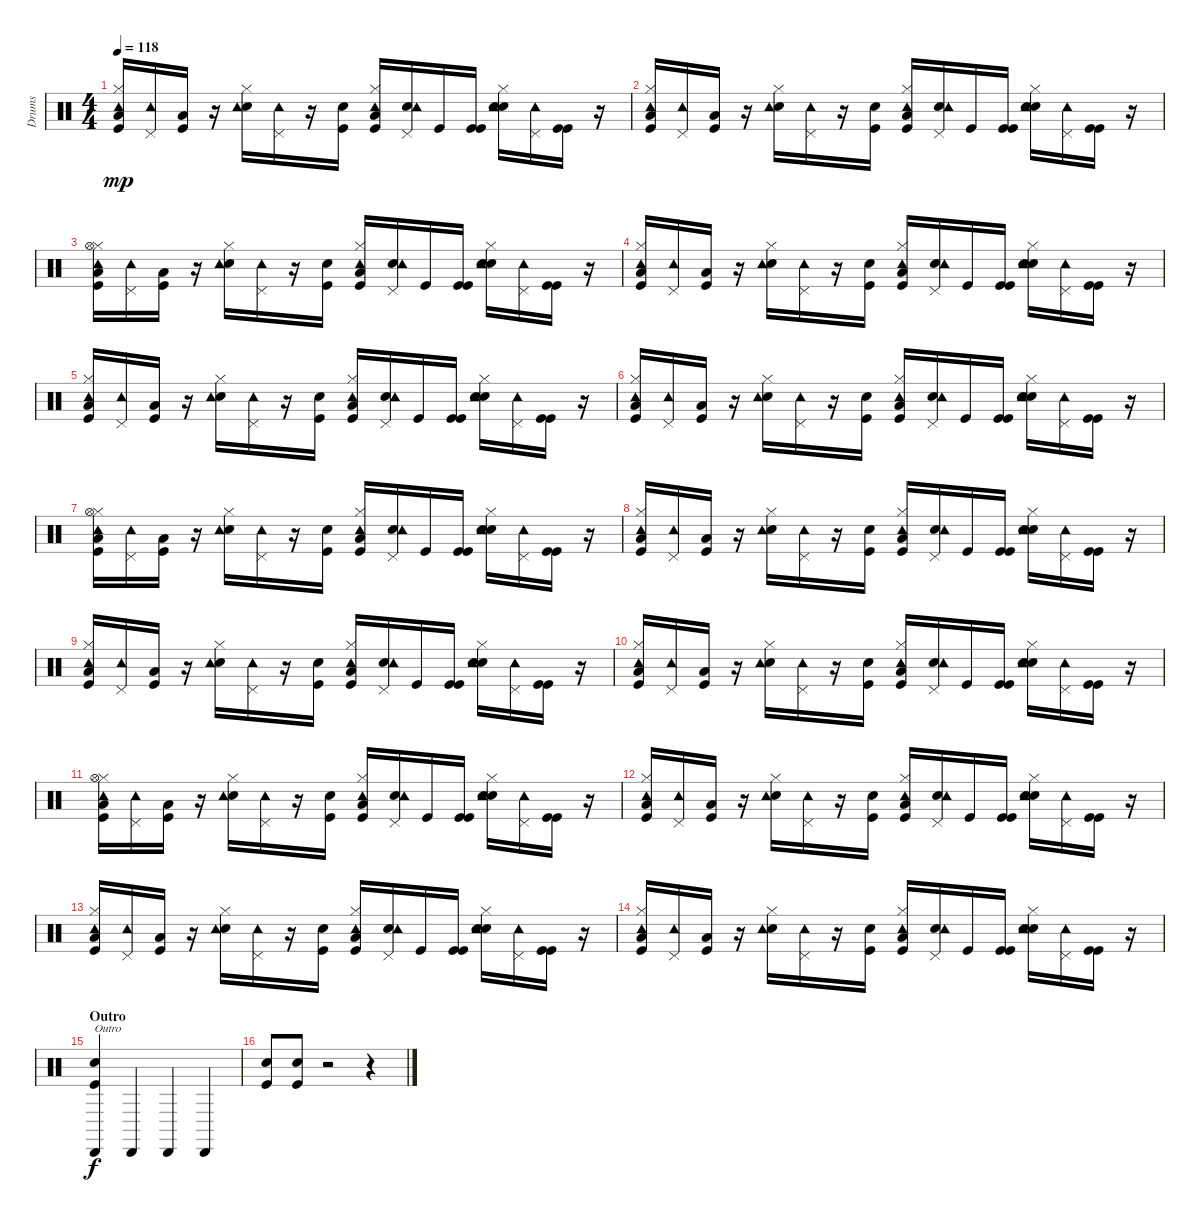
\track ("Drums" "Drums") {instrument percussion}
\staff {score}
\articulation defaults
\ts (4 4)
\tempo 118
\clef neutral
\ks c
("Low Floor Tom (hit)" "Hi-Hat (closed)" "Kick (hit)" "Tambourine (hit)").16{dy mp} ("Pedal Hi-Hat (hit)" "Tambourine (hit)").16 ("Low Floor Tom (hit)" "Kick (hit)").16 r.16 ("Electric Snare (hit)" "Hi-Hat (closed)" "Tambourine (hit)").16 ("Pedal Hi-Hat (hit)" "Tambourine (hit)").16 r.16 ("Kick (hit)" "Electric Snare (hit)").16 ("Low Floor Tom (hit)" "Hi-Hat (closed)" "Kick (hit)" "Tambourine (hit)").16 ("Pedal Hi-Hat (hit)" "Electric Snare (hit)" "Tambourine (hit)").16 "Kick (hit)".16 ("Kick (hit)" "Kick (hit)").16 ("Electric Snare (hit)" "Hi-Hat (closed)" "Electric Snare (hit)" "Tambourine (hit)").16 ("Pedal Hi-Hat (hit)" "Tambourine (hit)").16 ("Kick (hit)" "Kick (hit)").16 r.16 |
("Low Floor Tom (hit)" "Hi-Hat (closed)" "Kick (hit)" "Tambourine (hit)").16 ("Pedal Hi-Hat (hit)" "Tambourine (hit)").16 ("Low Floor Tom (hit)" "Kick (hit)").16 r.16 ("Electric Snare (hit)" "Hi-Hat (closed)" "Tambourine (hit)").16 ("Pedal Hi-Hat (hit)" "Tambourine (hit)").16 r.16 ("Kick (hit)" "Electric Snare (hit)").16 ("Low Floor Tom (hit)" "Hi-Hat (closed)" "Kick (hit)" "Tambourine (hit)").16 ("Pedal Hi-Hat (hit)" "Electric Snare (hit)" "Tambourine (hit)").16 "Kick (hit)".16 ("Kick (hit)" "Kick (hit)").16 ("Electric Snare (hit)" "Hi-Hat (closed)" "Electric Snare (hit)" "Tambourine (hit)").16 ("Pedal Hi-Hat (hit)" "Tambourine (hit)").16 ("Kick (hit)" "Kick (hit)").16 r.16 |
("Low Floor Tom (hit)" "Hi-Hat (closed)" "Kick (hit)" "Tambourine (hit)" "Hi-Hat (open)").16 ("Pedal Hi-Hat (hit)" "Tambourine (hit)").16 ("Low Floor Tom (hit)" "Kick (hit)").16 r.16 ("Electric Snare (hit)" "Hi-Hat (closed)" "Tambourine (hit)").16 ("Pedal Hi-Hat (hit)" "Tambourine (hit)").16 r.16 ("Kick (hit)" "Electric Snare (hit)").16 ("Low Floor Tom (hit)" "Hi-Hat (closed)" "Kick (hit)" "Tambourine (hit)").16 ("Pedal Hi-Hat (hit)" "Electric Snare (hit)" "Tambourine (hit)").16 "Kick (hit)".16 ("Kick (hit)" "Kick (hit)").16 ("Electric Snare (hit)" "Hi-Hat (closed)" "Electric Snare (hit)" "Tambourine (hit)").16 ("Pedal Hi-Hat (hit)" "Tambourine (hit)").16 ("Kick (hit)" "Kick (hit)").16 r.16 |
("Low Floor Tom (hit)" "Hi-Hat (closed)" "Kick (hit)" "Tambourine (hit)").16 ("Pedal Hi-Hat (hit)" "Tambourine (hit)").16 ("Low Floor Tom (hit)" "Kick (hit)").16 r.16 ("Electric Snare (hit)" "Hi-Hat (closed)" "Tambourine (hit)").16 ("Pedal Hi-Hat (hit)" "Tambourine (hit)").16 r.16 ("Kick (hit)" "Electric Snare (hit)").16 ("Low Floor Tom (hit)" "Hi-Hat (closed)" "Kick (hit)" "Tambourine (hit)").16 ("Pedal Hi-Hat (hit)" "Electric Snare (hit)" "Tambourine (hit)").16 "Kick (hit)".16 ("Kick (hit)" "Kick (hit)").16 ("Electric Snare (hit)" "Hi-Hat (closed)" "Electric Snare (hit)" "Tambourine (hit)").16 ("Pedal Hi-Hat (hit)" "Tambourine (hit)").16 ("Kick (hit)" "Kick (hit)").16 r.16 |
("Low Floor Tom (hit)" "Hi-Hat (closed)" "Kick (hit)" "Tambourine (hit)").16 ("Pedal Hi-Hat (hit)" "Tambourine (hit)").16 ("Low Floor Tom (hit)" "Kick (hit)").16 r.16 ("Electric Snare (hit)" "Hi-Hat (closed)" "Tambourine (hit)").16 ("Pedal Hi-Hat (hit)" "Tambourine (hit)").16 r.16 ("Kick (hit)" "Electric Snare (hit)").16 ("Low Floor Tom (hit)" "Hi-Hat (closed)" "Kick (hit)" "Tambourine (hit)").16 ("Pedal Hi-Hat (hit)" "Electric Snare (hit)" "Tambourine (hit)").16 "Kick (hit)".16 ("Kick (hit)" "Kick (hit)").16 ("Electric Snare (hit)" "Hi-Hat (closed)" "Electric Snare (hit)" "Tambourine (hit)").16 ("Pedal Hi-Hat (hit)" "Tambourine (hit)").16 ("Kick (hit)" "Kick (hit)").16 r.16 |
("Low Floor Tom (hit)" "Hi-Hat (closed)" "Kick (hit)" "Tambourine (hit)").16 ("Pedal Hi-Hat (hit)" "Tambourine (hit)").16 ("Low Floor Tom (hit)" "Kick (hit)").16 r.16 ("Electric Snare (hit)" "Hi-Hat (closed)" "Tambourine (hit)").16 ("Pedal Hi-Hat (hit)" "Tambourine (hit)").16 r.16 ("Kick (hit)" "Electric Snare (hit)").16 ("Low Floor Tom (hit)" "Hi-Hat (closed)" "Kick (hit)" "Tambourine (hit)").16 ("Pedal Hi-Hat (hit)" "Electric Snare (hit)" "Tambourine (hit)").16 "Kick (hit)".16 ("Kick (hit)" "Kick (hit)").16 ("Electric Snare (hit)" "Hi-Hat (closed)" "Electric Snare (hit)" "Tambourine (hit)").16 ("Pedal Hi-Hat (hit)" "Tambourine (hit)").16 ("Kick (hit)" "Kick (hit)").16 r.16 |
("Low Floor Tom (hit)" "Hi-Hat (closed)" "Kick (hit)" "Tambourine (hit)" "Hi-Hat (open)").16 ("Pedal Hi-Hat (hit)" "Tambourine (hit)").16 ("Low Floor Tom (hit)" "Kick (hit)").16 r.16 ("Electric Snare (hit)" "Hi-Hat (closed)" "Tambourine (hit)").16 ("Pedal Hi-Hat (hit)" "Tambourine (hit)").16 r.16 ("Kick (hit)" "Electric Snare (hit)").16 ("Low Floor Tom (hit)" "Hi-Hat (closed)" "Kick (hit)" "Tambourine (hit)").16 ("Pedal Hi-Hat (hit)" "Electric Snare (hit)" "Tambourine (hit)").16 "Kick (hit)".16 ("Kick (hit)" "Kick (hit)").16 ("Electric Snare (hit)" "Hi-Hat (closed)" "Electric Snare (hit)" "Tambourine (hit)").16 ("Pedal Hi-Hat (hit)" "Tambourine (hit)").16 ("Kick (hit)" "Kick (hit)").16 r.16 |
("Low Floor Tom (hit)" "Hi-Hat (closed)" "Kick (hit)" "Tambourine (hit)").16 ("Pedal Hi-Hat (hit)" "Tambourine (hit)").16 ("Low Floor Tom (hit)" "Kick (hit)").16 r.16 ("Electric Snare (hit)" "Hi-Hat (closed)" "Tambourine (hit)").16 ("Pedal Hi-Hat (hit)" "Tambourine (hit)").16 r.16 ("Kick (hit)" "Electric Snare (hit)").16 ("Low Floor Tom (hit)" "Hi-Hat (closed)" "Kick (hit)" "Tambourine (hit)").16 ("Pedal Hi-Hat (hit)" "Electric Snare (hit)" "Tambourine (hit)").16 "Kick (hit)".16 ("Kick (hit)" "Kick (hit)").16 ("Electric Snare (hit)" "Hi-Hat (closed)" "Electric Snare (hit)" "Tambourine (hit)").16 ("Pedal Hi-Hat (hit)" "Tambourine (hit)").16 ("Kick (hit)" "Kick (hit)").16 r.16 |
("Low Floor Tom (hit)" "Hi-Hat (closed)" "Kick (hit)" "Tambourine (hit)").16 ("Pedal Hi-Hat (hit)" "Tambourine (hit)").16 ("Low Floor Tom (hit)" "Kick (hit)").16 r.16 ("Electric Snare (hit)" "Hi-Hat (closed)" "Tambourine (hit)").16 ("Pedal Hi-Hat (hit)" "Tambourine (hit)").16 r.16 ("Kick (hit)" "Electric Snare (hit)").16 ("Low Floor Tom (hit)" "Hi-Hat (closed)" "Kick (hit)" "Tambourine (hit)").16 ("Pedal Hi-Hat (hit)" "Electric Snare (hit)" "Tambourine (hit)").16 "Kick (hit)".16 ("Kick (hit)" "Kick (hit)").16 ("Electric Snare (hit)" "Hi-Hat (closed)" "Electric Snare (hit)" "Tambourine (hit)").16 ("Pedal Hi-Hat (hit)" "Tambourine (hit)").16 ("Kick (hit)" "Kick (hit)").16 r.16 |
("Low Floor Tom (hit)" "Hi-Hat (closed)" "Kick (hit)" "Tambourine (hit)").16 ("Pedal Hi-Hat (hit)" "Tambourine (hit)").16 ("Low Floor Tom (hit)" "Kick (hit)").16 r.16 ("Electric Snare (hit)" "Hi-Hat (closed)" "Tambourine (hit)").16 ("Pedal Hi-Hat (hit)" "Tambourine (hit)").16 r.16 ("Kick (hit)" "Electric Snare (hit)").16 ("Low Floor Tom (hit)" "Hi-Hat (closed)" "Kick (hit)" "Tambourine (hit)").16 ("Pedal Hi-Hat (hit)" "Electric Snare (hit)" "Tambourine (hit)").16 "Kick (hit)".16 ("Kick (hit)" "Kick (hit)").16 ("Electric Snare (hit)" "Hi-Hat (closed)" "Electric Snare (hit)" "Tambourine (hit)").16 ("Pedal Hi-Hat (hit)" "Tambourine (hit)").16 ("Kick (hit)" "Kick (hit)").16 r.16 |
("Low Floor Tom (hit)" "Hi-Hat (closed)" "Kick (hit)" "Tambourine (hit)" "Hi-Hat (open)").16 ("Pedal Hi-Hat (hit)" "Tambourine (hit)").16 ("Low Floor Tom (hit)" "Kick (hit)").16 r.16 ("Electric Snare (hit)" "Hi-Hat (closed)" "Tambourine (hit)").16 ("Pedal Hi-Hat (hit)" "Tambourine (hit)").16 r.16 ("Kick (hit)" "Electric Snare (hit)").16 ("Low Floor Tom (hit)" "Hi-Hat (closed)" "Kick (hit)" "Tambourine (hit)").16 ("Pedal Hi-Hat (hit)" "Electric Snare (hit)" "Tambourine (hit)").16 "Kick (hit)".16 ("Kick (hit)" "Kick (hit)").16 ("Electric Snare (hit)" "Hi-Hat (closed)" "Electric Snare (hit)" "Tambourine (hit)").16 ("Pedal Hi-Hat (hit)" "Tambourine (hit)").16 ("Kick (hit)" "Kick (hit)").16 r.16 |
("Low Floor Tom (hit)" "Hi-Hat (closed)" "Kick (hit)" "Tambourine (hit)").16 ("Pedal Hi-Hat (hit)" "Tambourine (hit)").16 ("Low Floor Tom (hit)" "Kick (hit)").16 r.16 ("Electric Snare (hit)" "Hi-Hat (closed)" "Tambourine (hit)").16 ("Pedal Hi-Hat (hit)" "Tambourine (hit)").16 r.16 ("Kick (hit)" "Electric Snare (hit)").16 ("Low Floor Tom (hit)" "Hi-Hat (closed)" "Kick (hit)" "Tambourine (hit)").16 ("Pedal Hi-Hat (hit)" "Electric Snare (hit)" "Tambourine (hit)").16 "Kick (hit)".16 ("Kick (hit)" "Kick (hit)").16 ("Electric Snare (hit)" "Hi-Hat (closed)" "Electric Snare (hit)" "Tambourine (hit)").16 ("Pedal Hi-Hat (hit)" "Tambourine (hit)").16 ("Kick (hit)" "Kick (hit)").16 r.16 |
("Low Floor Tom (hit)" "Hi-Hat (closed)" "Kick (hit)" "Tambourine (hit)").16 ("Pedal Hi-Hat (hit)" "Tambourine (hit)").16 ("Low Floor Tom (hit)" "Kick (hit)").16 r.16 ("Electric Snare (hit)" "Hi-Hat (closed)" "Tambourine (hit)").16 ("Pedal Hi-Hat (hit)" "Tambourine (hit)").16 r.16 ("Kick (hit)" "Electric Snare (hit)").16 ("Low Floor Tom (hit)" "Hi-Hat (closed)" "Kick (hit)" "Tambourine (hit)").16 ("Pedal Hi-Hat (hit)" "Electric Snare (hit)" "Tambourine (hit)").16 "Kick (hit)".16 ("Kick (hit)" "Kick (hit)").16 ("Electric Snare (hit)" "Hi-Hat (closed)" "Electric Snare (hit)" "Tambourine (hit)").16 ("Pedal Hi-Hat (hit)" "Tambourine (hit)").16 ("Kick (hit)" "Kick (hit)").16 r.16 |
("Low Floor Tom (hit)" "Hi-Hat (closed)" "Kick (hit)" "Tambourine (hit)").16 ("Pedal Hi-Hat (hit)" "Tambourine (hit)").16 ("Low Floor Tom (hit)" "Kick (hit)").16 r.16 ("Electric Snare (hit)" "Hi-Hat (closed)" "Tambourine (hit)").16 ("Pedal Hi-Hat (hit)" "Tambourine (hit)").16 r.16 ("Kick (hit)" "Electric Snare (hit)").16 ("Low Floor Tom (hit)" "Hi-Hat (closed)" "Kick (hit)" "Tambourine (hit)").16 ("Pedal Hi-Hat (hit)" "Electric Snare (hit)" "Tambourine (hit)").16 "Kick (hit)".16 ("Kick (hit)" "Kick (hit)").16 ("Electric Snare (hit)" "Hi-Hat (closed)" "Electric Snare (hit)" "Tambourine (hit)").16 ("Pedal Hi-Hat (hit)" "Tambourine (hit)").16 ("Kick (hit)" "Kick (hit)").16 r.16 |
\section ("" "Outro")
("Cabasa (hit)" "Kick (hit)" "Electric Snare (hit)").4{txt "Outro" dy f} "Cabasa (hit)".4 "Cabasa (hit)".4 "Cabasa (hit)".4 |
("Kick (hit)" "Electric Snare (hit)").8 ("Kick (hit)" "Electric Snare (hit)").8 r.2 r.4
